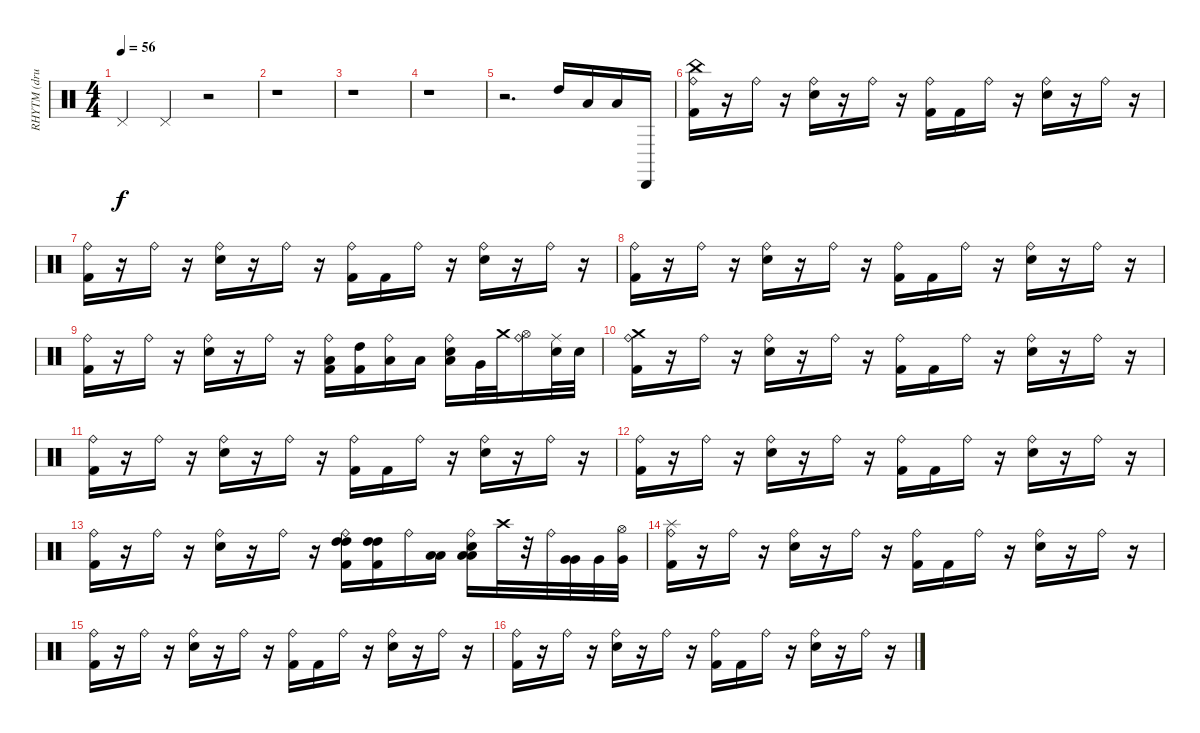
\track ("RHYTM (drums)" "RHYTM (dru") {instrument percussion}
\staff {score}
\articulation defaults
\ts (4 4)
\tempo 56
\clef neutral
\ks c "Pedal Hi-Hat (hit)".4{dy f} "Pedal Hi-Hat (hit)".4
r.2 |
r.1 |
r.1 |
r.1 |
r.2{d} "High Tom (hit)".16 "Low Tom (hit)".16 "Low Floor Tom (hit)".16 "Cabasa (hit)".16 |
("Ride (bell)" "China (hit)" "Kick (hit) 2").16 r.16 "Ride (bell)".16 r.16 ("Ride (bell)" "Electric Snare (hit)").16 r.16 "Ride (bell)".16 r.16 ("Ride (bell)" "Kick (hit) 2").16 "Kick (hit) 2".16 "Ride (bell)".16 r.16 ("Ride (bell)" "Electric Snare (hit)").16 r.16 "Ride (bell)".16 r.16 |
("Ride (bell)" "Kick (hit) 2").16 r.16 "Ride (bell)".16 r.16 ("Ride (bell)" "Electric Snare (hit)").16 r.16 "Ride (bell)".16 r.16 ("Ride (bell)" "Kick (hit) 2").16 "Kick (hit) 2".16 "Ride (bell)".16 r.16 ("Ride (bell)" "Electric Snare (hit)").16 r.16 "Ride (bell)".16 r.16 |
("Ride (bell)" "Kick (hit) 2").16 r.16 "Ride (bell)".16 r.16 ("Ride (bell)" "Electric Snare (hit)").16 r.16 "Ride (bell)".16 r.16 ("Ride (bell)" "Kick (hit) 2").16 "Kick (hit) 2".16 "Ride (bell)".16 r.16 ("Ride (bell)" "Electric Snare (hit)").16 r.16 "Ride (bell)".16 r.16 |
("Ride (bell)" "Kick (hit) 2").16 r.16 "Ride (bell)".16 r.16 ("Ride (bell)" "Electric Snare (hit)").16 r.16 "Ride (bell)".16 r.16 ("Low Floor Tom (hit)" "Ride (bell)" "Kick (hit) 2").16 ("High Tom (hit)" "Kick (hit) 2").16 ("Low Tom (hit)" "Ride (bell)").16 "Low Floor Tom (hit)".16 ("Low Tom (hit)" "Ride (bell)" "Electric Snare (hit)").16 "Very Low Tom (hit)".32 "Crash medium (hit)".32 ("Hi-Hat (open)" "Ride (bell)").16 ("Ride (middle)" "Snare (hit) 2").32 "Snare (hit) 2".32 |
("Crash medium (hit)" "Ride (bell)" "Kick (hit) 2").16 r.16 "Ride (bell)".16 r.16 ("Ride (bell)" "Electric Snare (hit)").16 r.16 "Ride (bell)".16 r.16 ("Ride (bell)" "Kick (hit) 2").16 "Kick (hit) 2".16 "Ride (bell)".16 r.16 ("Ride (bell)" "Electric Snare (hit)").16 r.16 "Ride (bell)".16 r.16 |
("Ride (bell)" "Kick (hit) 2").16 r.16 "Ride (bell)".16 r.16 ("Ride (bell)" "Electric Snare (hit)").16 r.16 "Ride (bell)".16 r.16 ("Ride (bell)" "Kick (hit) 2").16 "Kick (hit) 2".16 "Ride (bell)".16 r.16 ("Ride (bell)" "Electric Snare (hit)").16 r.16 "Ride (bell)".16 r.16 |
("Ride (bell)" "Kick (hit) 2").16 r.16 "Ride (bell)".16 r.16 ("Ride (bell)" "Electric Snare (hit)").16 r.16 "Ride (bell)".16 r.16 ("Ride (bell)" "Kick (hit) 2").16 "Kick (hit) 2".16 "Ride (bell)".16 r.16 ("Ride (bell)" "Electric Snare (hit)").16 r.16 "Ride (bell)".16 r.16 |
("Ride (bell)" "Kick (hit) 2").16 r.16 "Ride (bell)".16 r.16 ("Ride (bell)" "Electric Snare (hit)").16 r.16 "Ride (bell)".16 r.16 ("High Tom (hit)" "High Tom (hit)" "Ride (bell)" "Kick (hit) 2").16 ("High Tom (hit)" "High Tom (hit)" "Kick (hit) 2").16 "Ride (bell)".16 ("Low Tom (hit)" "Low Tom (hit)").16 ("Low Tom (hit)" "Low Tom (hit)" "Ride (bell)" "Electric Snare (hit)").16 "Crash high (hit)".32 r.32 "Ride (bell)".32 ("Very Low Tom (hit)" "Very Low Tom (hit)").32 "Very Low Tom (hit)".32 ("Hi-Hat (open)" "Very Low Tom (hit)").32 |
("Splash (hit)" "Ride (bell)" "Kick (hit) 2").16 r.16 "Ride (bell)".16 r.16 ("Ride (bell)" "Electric Snare (hit)").16 r.16 "Ride (bell)".16 r.16 ("Ride (bell)" "Kick (hit) 2").16 "Kick (hit) 2".16 "Ride (bell)".16 r.16 ("Ride (bell)" "Electric Snare (hit)").16 r.16 "Ride (bell)".16 r.16 |
("Ride (bell)" "Kick (hit) 2").16 r.16 "Ride (bell)".16 r.16 ("Ride (bell)" "Electric Snare (hit)").16 r.16 "Ride (bell)".16 r.16 ("Ride (bell)" "Kick (hit) 2").16 "Kick (hit) 2".16 "Ride (bell)".16 r.16 ("Ride (bell)" "Electric Snare (hit)").16{volume 14} r.16 "Ride (bell)".16{volume 14} r.16 |
("Ride (bell)" "Kick (hit) 2").16{volume 15} r.16 "Ride (bell)".16{volume 15} r.16 ("Ride (bell)" "Electric Snare (hit)").16{volume 15} r.16 "Ride (bell)".16{volume 14} r.16 ("Ride (bell)" "Kick (hit) 2").16{volume 14} "Kick (hit) 2".16 "Ride (bell)".16 r.16 ("Ride (bell)" "Electric Snare (hit)").16 r.16 "Ride (bell)".16 r.16
